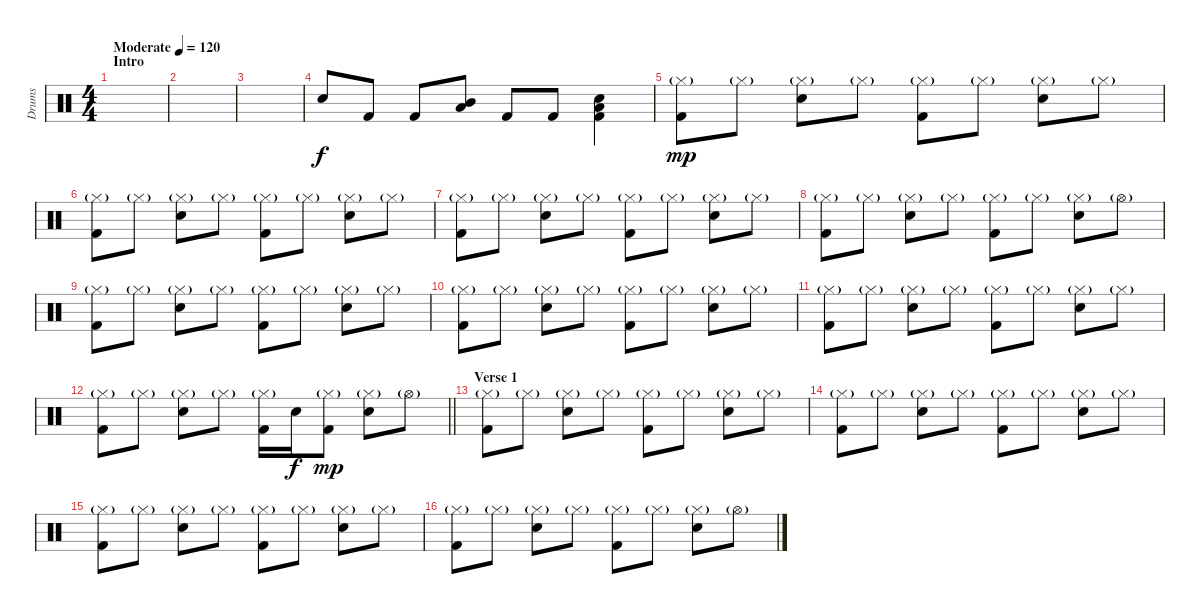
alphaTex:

\track ("Drums " "Drums ") {instrument percussion}
\staff {score}
\articulation defaults
\ts (4 4)
\section ("" "Intro")
\tempo (120 "Moderate")
\clef neutral
\ks c
|
|
|
"Electric Snare (hit)".8 "Kick (hit) 2".8 "Kick (hit) 2".8 ("Mid Tom (hit)" "Low Tom (hit)").8 "Kick (hit) 2".8 "Kick (hit) 2".8 ("Electric Snare (hit)" "Low Tom (hit)" "Kick (hit) 2").4 |
("Hi-Hat (closed)"{g} "Kick (hit) 2").8{dy mp} "Hi-Hat (closed)"{g}.8 ("Hi-Hat (closed)"{g} "Electric Snare (hit)").8 "Hi-Hat (closed)"{g}.8 ("Hi-Hat (closed)"{g} "Kick (hit) 2").8 "Hi-Hat (closed)"{g}.8 ("Hi-Hat (closed)"{g} "Electric Snare (hit)").8 "Hi-Hat (closed)"{g}.8 |
("Hi-Hat (closed)"{g} "Kick (hit) 2").8 "Hi-Hat (closed)"{g}.8 ("Hi-Hat (closed)"{g} "Electric Snare (hit)").8 "Hi-Hat (closed)"{g}.8 ("Hi-Hat (closed)"{g} "Kick (hit) 2").8 "Hi-Hat (closed)"{g}.8 ("Hi-Hat (closed)"{g} "Electric Snare (hit)").8 "Hi-Hat (closed)"{g}.8 |
("Hi-Hat (closed)"{g} "Kick (hit) 2").8 "Hi-Hat (closed)"{g}.8 ("Hi-Hat (closed)"{g} "Electric Snare (hit)").8 "Hi-Hat (closed)"{g}.8 ("Hi-Hat (closed)"{g} "Kick (hit) 2").8 "Hi-Hat (closed)"{g}.8 ("Hi-Hat (closed)"{g} "Electric Snare (hit)").8 "Hi-Hat (closed)"{g}.8 |
("Hi-Hat (closed)"{g} "Kick (hit) 2").8 "Hi-Hat (closed)"{g}.8 ("Hi-Hat (closed)"{g} "Electric Snare (hit)").8 "Hi-Hat (closed)"{g}.8 ("Hi-Hat (closed)"{g} "Kick (hit) 2").8 "Hi-Hat (closed)"{g}.8 ("Hi-Hat (closed)"{g} "Electric Snare (hit)").8 "Hi-Hat (open)"{g}.8 |
("Hi-Hat (closed)"{g} "Kick (hit) 2").8 "Hi-Hat (closed)"{g}.8 ("Hi-Hat (closed)"{g} "Electric Snare (hit)").8 "Hi-Hat (closed)"{g}.8 ("Hi-Hat (closed)"{g} "Kick (hit) 2").8 "Hi-Hat (closed)"{g}.8 ("Hi-Hat (closed)"{g} "Electric Snare (hit)").8 "Hi-Hat (closed)"{g}.8 |
("Hi-Hat (closed)"{g} "Kick (hit) 2").8 "Hi-Hat (closed)"{g}.8 ("Hi-Hat (closed)"{g} "Electric Snare (hit)").8 "Hi-Hat (closed)"{g}.8 ("Hi-Hat (closed)"{g} "Kick (hit) 2").8 "Hi-Hat (closed)"{g}.8 ("Hi-Hat (closed)"{g} "Electric Snare (hit)").8 "Hi-Hat (closed)"{g}.8 |
("Hi-Hat (closed)"{g} "Kick (hit) 2").8 "Hi-Hat (closed)"{g}.8 ("Hi-Hat (closed)"{g} "Electric Snare (hit)").8 "Hi-Hat (closed)"{g}.8 ("Hi-Hat (closed)"{g} "Kick (hit) 2").8 "Hi-Hat (closed)"{g}.8 ("Hi-Hat (closed)"{g} "Electric Snare (hit)").8 "Hi-Hat (closed)"{g}.8 |
\barLineRight lightlight
("Hi-Hat (closed)"{g} "Kick (hit) 2").8 "Hi-Hat (closed)"{g}.8 ("Hi-Hat (closed)"{g} "Electric Snare (hit)").8 "Hi-Hat (closed)"{g}.8 ("Hi-Hat (closed)"{g} "Kick (hit) 2").16 "Electric Snare (hit)".16{dy f} ("Hi-Hat (closed)"{g} "Kick (hit) 2").8{dy mp} ("Hi-Hat (closed)"{g} "Electric Snare (hit)").8 "Hi-Hat (open)"{g}.8 |
\section ("" "Verse 1")
("Hi-Hat (closed)"{g} "Kick (hit) 2").8 "Hi-Hat (closed)"{g}.8 ("Hi-Hat (closed)"{g} "Electric Snare (hit)").8 "Hi-Hat (closed)"{g}.8 ("Hi-Hat (closed)"{g} "Kick (hit) 2").8 "Hi-Hat (closed)"{g}.8 ("Hi-Hat (closed)"{g} "Electric Snare (hit)").8 "Hi-Hat (closed)"{g}.8 |
("Hi-Hat (closed)"{g} "Kick (hit) 2").8 "Hi-Hat (closed)"{g}.8 ("Hi-Hat (closed)"{g} "Electric Snare (hit)").8 "Hi-Hat (closed)"{g}.8 ("Hi-Hat (closed)"{g} "Kick (hit) 2").8 "Hi-Hat (closed)"{g}.8 ("Hi-Hat (closed)"{g} "Electric Snare (hit)").8 "Hi-Hat (closed)"{g}.8 |
("Hi-Hat (closed)"{g} "Kick (hit) 2").8 "Hi-Hat (closed)"{g}.8 ("Hi-Hat (closed)"{g} "Electric Snare (hit)").8 "Hi-Hat (closed)"{g}.8 ("Hi-Hat (closed)"{g} "Kick (hit) 2").8 "Hi-Hat (closed)"{g}.8 ("Hi-Hat (closed)"{g} "Electric Snare (hit)").8 "Hi-Hat (closed)"{g}.8 |
("Hi-Hat (closed)"{g} "Kick (hit) 2").8 "Hi-Hat (closed)"{g}.8 ("Hi-Hat (closed)"{g} "Electric Snare (hit)").8 "Hi-Hat (closed)"{g}.8 ("Hi-Hat (closed)"{g} "Kick (hit) 2").8 "Hi-Hat (closed)"{g}.8 ("Hi-Hat (closed)"{g} "Electric Snare (hit)").8 "Hi-Hat (open)"{g}.8
